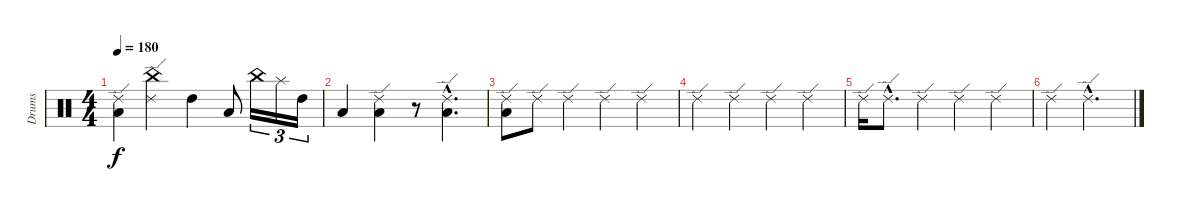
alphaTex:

\track ("Drums" "Drums") {instrument percussion}
\staff {score}
\articulation defaults
\ts (4 4)
\tempo 180
\clef neutral
\ks c
("Ride (edge) 2" "Low Tom (hit)").4{dy f} ("China (hit)" "Ride (edge) 2").4 "High Tom (hit)".4 "Low Tom (hit)".8 "China (hit)".16{tu (3 2)} "Splash (hit)".16{tu (3 2)} "High Tom (hit)".16{tu (3 2)} |
"Low Tom (hit)".4 ("Low Tom (hit)" "Ride (edge) 2").4 r.8 ("Ride (edge) 2"{hac} "Low Tom (hit)"{hac}).4{d} |
("Low Tom (hit)" "Ride (edge) 2").8 "Ride (edge) 2".8 "Ride (edge) 2".4 "Ride (edge) 2".4 "Ride (edge) 2".4 |
"Ride (edge) 2".4 "Ride (edge) 2".4 "Ride (edge) 2".4 "Ride (edge) 2".4 |
"Ride (edge) 2".16 "Ride (edge) 2"{hac}.8{d} "Ride (edge) 2".4 "Ride (edge) 2".4 "Ride (edge) 2".4 |
"Ride (edge) 2".4 "Ride (edge) 2"{hac}.2{d}
